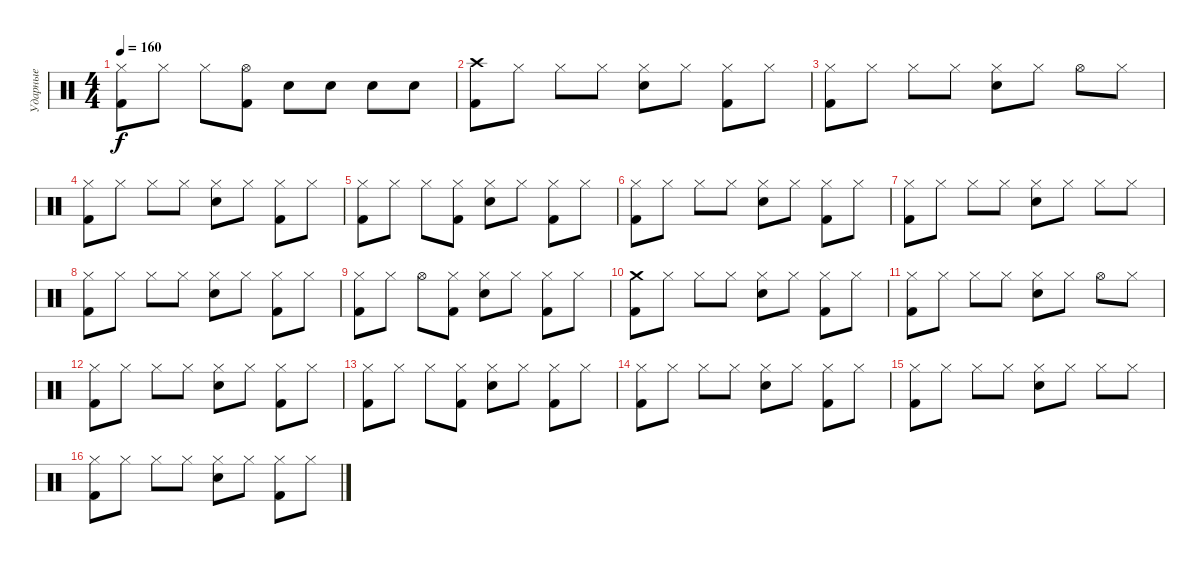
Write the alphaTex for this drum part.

\track ("Ударные" "Ударные") {instrument percussion}
\staff {score}
\articulation defaults
\ts (4 4)
\tempo 160
\clef neutral
\ks c
("Kick (hit) 2" "Hi-Hat (closed)").8{dy f} "Hi-Hat (closed)".8 "Hi-Hat (closed)".8 ("Kick (hit) 2" "Hi-Hat (open)").8 "Electric Snare (hit)".8 "Electric Snare (hit)".8 "Electric Snare (hit)".8 "Electric Snare (hit)".8 |
("Kick (hit) 2" "Crash high (hit)").8 "Hi-Hat (closed)".8 "Hi-Hat (closed)".8 "Hi-Hat (closed)".8 ("Electric Snare (hit)" "Hi-Hat (closed)").8 "Hi-Hat (closed)".8 ("Kick (hit) 2" "Hi-Hat (closed)").8 "Hi-Hat (closed)".8 |
("Kick (hit) 2" "Hi-Hat (closed)").8 "Hi-Hat (closed)".8 "Hi-Hat (closed)".8 "Hi-Hat (closed)".8 ("Electric Snare (hit)" "Hi-Hat (closed)").8 "Hi-Hat (closed)".8 "Hi-Hat (open)".8 "Hi-Hat (closed)".8 |
("Kick (hit) 2" "Hi-Hat (closed)").8 "Hi-Hat (closed)".8 "Hi-Hat (closed)".8 "Hi-Hat (closed)".8 ("Electric Snare (hit)" "Hi-Hat (closed)").8 "Hi-Hat (closed)".8 ("Kick (hit) 2" "Hi-Hat (closed)").8 "Hi-Hat (closed)".8 |
("Kick (hit) 2" "Hi-Hat (closed)").8 "Hi-Hat (closed)".8 "Hi-Hat (closed)".8 ("Kick (hit) 2" "Hi-Hat (closed)").8 ("Electric Snare (hit)" "Hi-Hat (closed)").8 "Hi-Hat (closed)".8 ("Kick (hit) 2" "Hi-Hat (closed)").8 "Hi-Hat (closed)".8 |
("Kick (hit) 2" "Hi-Hat (closed)").8 "Hi-Hat (closed)".8 "Hi-Hat (closed)".8 "Hi-Hat (closed)".8 ("Electric Snare (hit)" "Hi-Hat (closed)").8 "Hi-Hat (closed)".8 ("Kick (hit) 2" "Hi-Hat (closed)").8 "Hi-Hat (closed)".8 |
("Kick (hit) 2" "Hi-Hat (closed)").8 "Hi-Hat (closed)".8 "Hi-Hat (closed)".8 "Hi-Hat (closed)".8 ("Electric Snare (hit)" "Hi-Hat (closed)").8 "Hi-Hat (closed)".8 "Hi-Hat (closed)".8 "Hi-Hat (closed)".8 |
("Kick (hit) 2" "Hi-Hat (closed)").8 "Hi-Hat (closed)".8 "Hi-Hat (closed)".8 "Hi-Hat (closed)".8 ("Electric Snare (hit)" "Hi-Hat (closed)").8 "Hi-Hat (closed)".8 ("Kick (hit) 2" "Hi-Hat (closed)").8 "Hi-Hat (closed)".8 |
("Kick (hit) 2" "Hi-Hat (closed)").8 "Hi-Hat (closed)".8 "Hi-Hat (open)".8 ("Kick (hit) 2" "Hi-Hat (closed)").8 ("Electric Snare (hit)" "Hi-Hat (closed)").8 "Hi-Hat (closed)".8 ("Kick (hit) 2" "Hi-Hat (closed)").8 "Hi-Hat (closed)".8 |
("Kick (hit) 2" "Crash medium (hit)").8 "Hi-Hat (closed)".8 "Hi-Hat (closed)".8 "Hi-Hat (closed)".8 ("Electric Snare (hit)" "Hi-Hat (closed)").8 "Hi-Hat (closed)".8 ("Kick (hit) 2" "Hi-Hat (closed)").8 "Hi-Hat (closed)".8 |
("Kick (hit) 2" "Hi-Hat (closed)").8 "Hi-Hat (closed)".8 "Hi-Hat (closed)".8 "Hi-Hat (closed)".8 ("Electric Snare (hit)" "Hi-Hat (closed)").8 "Hi-Hat (closed)".8 "Hi-Hat (open)".8 "Hi-Hat (closed)".8 |
("Kick (hit) 2" "Hi-Hat (closed)").8 "Hi-Hat (closed)".8 "Hi-Hat (closed)".8 "Hi-Hat (closed)".8 ("Electric Snare (hit)" "Hi-Hat (closed)").8 "Hi-Hat (closed)".8 ("Kick (hit) 2" "Hi-Hat (closed)").8 "Hi-Hat (closed)".8 |
("Kick (hit) 2" "Hi-Hat (closed)").8 "Hi-Hat (closed)".8 "Hi-Hat (closed)".8 ("Kick (hit) 2" "Hi-Hat (closed)").8 ("Electric Snare (hit)" "Hi-Hat (closed)").8 "Hi-Hat (closed)".8 ("Kick (hit) 2" "Hi-Hat (closed)").8 "Hi-Hat (closed)".8 |
("Kick (hit) 2" "Hi-Hat (closed)").8 "Hi-Hat (closed)".8 "Hi-Hat (closed)".8 "Hi-Hat (closed)".8 ("Electric Snare (hit)" "Hi-Hat (closed)").8 "Hi-Hat (closed)".8 ("Kick (hit) 2" "Hi-Hat (closed)").8 "Hi-Hat (closed)".8 |
("Kick (hit) 2" "Hi-Hat (closed)").8 "Hi-Hat (closed)".8 "Hi-Hat (closed)".8 "Hi-Hat (closed)".8 ("Electric Snare (hit)" "Hi-Hat (closed)").8 "Hi-Hat (closed)".8 "Hi-Hat (closed)".8 "Hi-Hat (closed)".8 |
("Kick (hit) 2" "Hi-Hat (closed)").8 "Hi-Hat (closed)".8 "Hi-Hat (closed)".8 "Hi-Hat (closed)".8 ("Electric Snare (hit)" "Hi-Hat (closed)").8 "Hi-Hat (closed)".8 ("Kick (hit) 2" "Hi-Hat (closed)").8 "Hi-Hat (closed)".8
